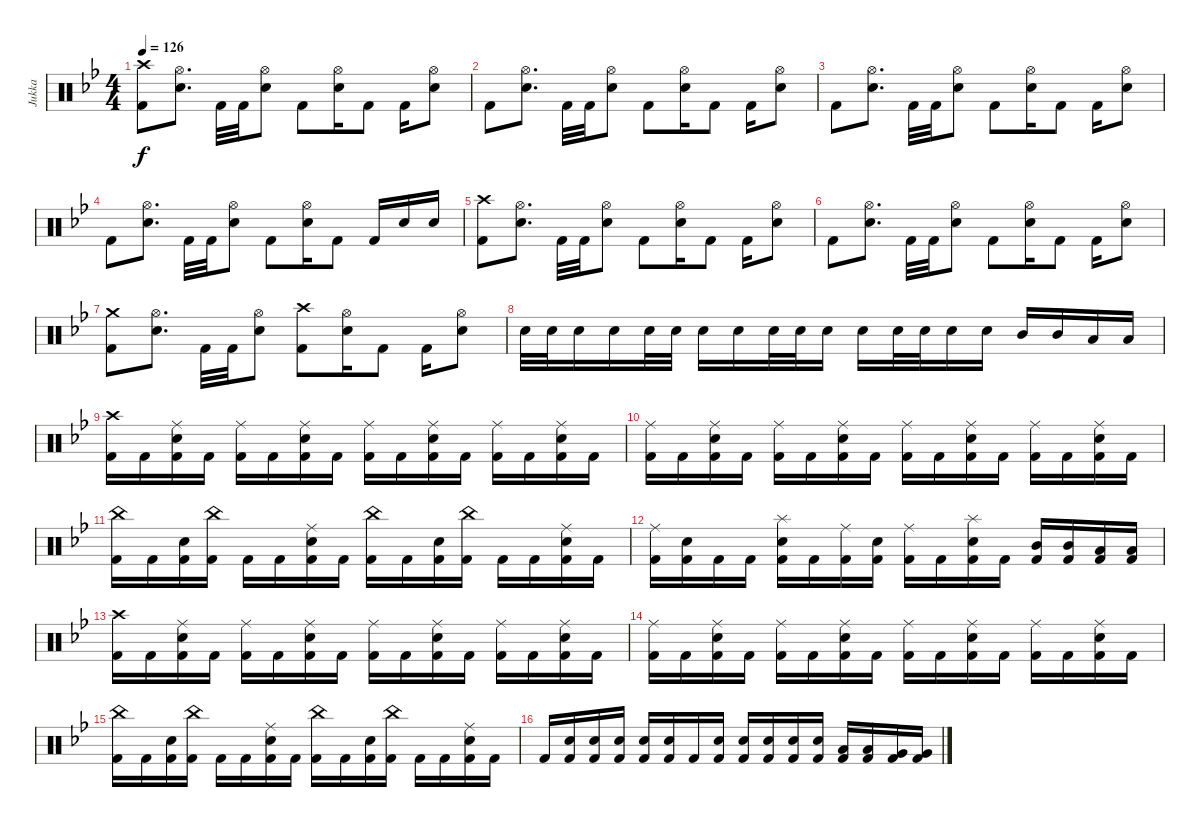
\track ("Jukka" "Jukka") {instrument percussion}
\staff {score}
\articulation defaults
\ts (4 4)
\tempo 126
\clef neutral
\ks gminor
("Crash high (hit)" "Kick (hit) 2").8{dy f} ("Hi-Hat (open)" "Electric Snare (hit)").8{d} "Kick (hit) 2".32 "Kick (hit) 2".32 ("Hi-Hat (open)" "Electric Snare (hit)").8 "Kick (hit) 2".8 ("Hi-Hat (open)" "Electric Snare (hit)").16 "Kick (hit) 2".8 "Kick (hit) 2".16 ("Hi-Hat (open)" "Electric Snare (hit)").8 |
"Kick (hit) 2".8 ("Hi-Hat (open)" "Electric Snare (hit)").8{d} "Kick (hit) 2".32 "Kick (hit) 2".32 ("Hi-Hat (open)" "Electric Snare (hit)").8 "Kick (hit) 2".8 ("Hi-Hat (open)" "Electric Snare (hit)").16 "Kick (hit) 2".8 "Kick (hit) 2".16 ("Hi-Hat (open)" "Electric Snare (hit)").8 |
"Kick (hit) 2".8 ("Hi-Hat (open)" "Electric Snare (hit)").8{d} "Kick (hit) 2".32 "Kick (hit) 2".32 ("Hi-Hat (open)" "Electric Snare (hit)").8 "Kick (hit) 2".8 ("Hi-Hat (open)" "Electric Snare (hit)").16 "Kick (hit) 2".8 "Kick (hit) 2".16 ("Hi-Hat (open)" "Electric Snare (hit)").8 |
"Kick (hit) 2".8 ("Hi-Hat (open)" "Electric Snare (hit)").8{d} "Kick (hit) 2".32 "Kick (hit) 2".32 ("Hi-Hat (open)" "Electric Snare (hit)").8 "Kick (hit) 2".8 ("Hi-Hat (open)" "Electric Snare (hit)").16 "Kick (hit) 2".8 "Kick (hit) 2".16 "Electric Snare (hit)".16 "Electric Snare (hit)".16 |
("Crash high (hit)" "Kick (hit) 2").8 ("Hi-Hat (open)" "Electric Snare (hit)").8{d} "Kick (hit) 2".32 "Kick (hit) 2".32 ("Hi-Hat (open)" "Electric Snare (hit)").8 "Kick (hit) 2".8 ("Hi-Hat (open)" "Electric Snare (hit)").16 "Kick (hit) 2".8 "Kick (hit) 2".16 ("Hi-Hat (open)" "Electric Snare (hit)").8 |
"Kick (hit) 2".8 ("Hi-Hat (open)" "Electric Snare (hit)").8{d} "Kick (hit) 2".32 "Kick (hit) 2".32 ("Hi-Hat (open)" "Electric Snare (hit)").8 "Kick (hit) 2".8 ("Hi-Hat (open)" "Electric Snare (hit)").16 "Kick (hit) 2".8 "Kick (hit) 2".16 ("Hi-Hat (open)" "Electric Snare (hit)").8 |
("Crash medium (hit)" "Kick (hit) 2").8 ("Hi-Hat (open)" "Electric Snare (hit)").8{d} "Kick (hit) 2".32 "Kick (hit) 2".32 ("Hi-Hat (open)" "Electric Snare (hit)").8 ("Crash high (hit)" "Kick (hit) 2").8 ("Hi-Hat (open)" "Electric Snare (hit)").16 "Kick (hit) 2".8 "Kick (hit) 2".16 ("Hi-Hat (open)" "Electric Snare (hit)").8 |
"Electric Snare (hit)".32 "Electric Snare (hit)".32 "Electric Snare (hit)".16 "Electric Snare (hit)".16 "Electric Snare (hit)".32 "Electric Snare (hit)".32 "Electric Snare (hit)".16 "Electric Snare (hit)".16 "Electric Snare (hit)".32 "Electric Snare (hit)".32 "Electric Snare (hit)".16 "Electric Snare (hit)".16 "Electric Snare (hit)".32 "Electric Snare (hit)".32 "Electric Snare (hit)".16 "Electric Snare (hit)".16 "Mid Tom (hit)".16 "Mid Tom (hit)".16 "Low Tom (hit)".16 "Low Tom (hit)".16 |
("Crash high (hit)" "Kick (hit) 2").16 "Kick (hit) 2".16 ("Ride (middle)" "Electric Snare (hit)" "Kick (hit) 2").16 "Kick (hit) 2".16 ("Ride (middle)" "Kick (hit) 2").16 "Kick (hit) 2".16 ("Ride (middle)" "Electric Snare (hit)" "Kick (hit) 2").16 "Kick (hit) 2".16 ("Ride (middle)" "Kick (hit) 2").16 "Kick (hit) 2".16 ("Ride (middle)" "Electric Snare (hit)" "Kick (hit) 2").16 "Kick (hit) 2".16 ("Ride (middle)" "Kick (hit) 2").16 "Kick (hit) 2".16 ("Ride (middle)" "Electric Snare (hit)" "Kick (hit) 2").16 "Kick (hit) 2".16 |
("Ride (middle)" "Kick (hit) 2").16 "Kick (hit) 2".16 ("Ride (middle)" "Electric Snare (hit)" "Kick (hit) 2").16 "Kick (hit) 2".16 ("Ride (middle)" "Kick (hit) 2").16 "Kick (hit) 2".16 ("Ride (middle)" "Electric Snare (hit)" "Kick (hit) 2").16 "Kick (hit) 2".16 ("Ride (middle)" "Kick (hit) 2").16 "Kick (hit) 2".16 ("Ride (middle)" "Electric Snare (hit)" "Kick (hit) 2").16 "Kick (hit) 2".16 ("Ride (middle)" "Kick (hit) 2").16 "Kick (hit) 2".16 ("Ride (middle)" "Electric Snare (hit)" "Kick (hit) 2").16 "Kick (hit) 2".16 |
("China (hit)" "Kick (hit) 2").16 "Kick (hit) 2".16 ("Electric Snare (hit)" "Kick (hit) 2").16 ("China (hit)" "Kick (hit) 2").16 "Kick (hit) 2".16 "Kick (hit) 2".16 ("Ride (middle)" "Electric Snare (hit)" "Kick (hit) 2").16 "Kick (hit) 2".16 ("China (hit)" "Kick (hit) 2").16 "Kick (hit) 2".16 ("Electric Snare (hit)" "Kick (hit) 2").16 ("China (hit)" "Kick (hit) 2").16 "Kick (hit) 2".16 "Kick (hit) 2".16 ("Ride (middle)" "Electric Snare (hit)" "Kick (hit) 2").16 "Kick (hit) 2".16 |
("Ride (middle)" "Kick (hit) 2").16 ("Electric Snare (hit)" "Kick (hit) 2").16 "Kick (hit) 2".16 "Kick (hit) 2".16 ("Splash (hit)" "Electric Snare (hit)" "Kick (hit) 2").16 "Kick (hit) 2".16 ("Ride (middle)" "Kick (hit) 2").16 ("Electric Snare (hit)" "Kick (hit) 2").16 ("Ride (middle)" "Kick (hit) 2").16 "Kick (hit) 2".16 ("Splash (hit)" "Electric Snare (hit)" "Kick (hit) 2").16 "Kick (hit) 2".16 ("Mid Tom (hit)" "Kick (hit) 2").16 ("Mid Tom (hit)" "Kick (hit) 2").16 ("Low Tom (hit)" "Kick (hit) 2").16 ("Low Tom (hit)" "Kick (hit) 2").16 |
("Crash high (hit)" "Kick (hit) 2").16 "Kick (hit) 2".16 ("Ride (middle)" "Electric Snare (hit)" "Kick (hit) 2").16 "Kick (hit) 2".16 ("Ride (middle)" "Kick (hit) 2").16 "Kick (hit) 2".16 ("Ride (middle)" "Electric Snare (hit)" "Kick (hit) 2").16 "Kick (hit) 2".16 ("Ride (middle)" "Kick (hit) 2").16 "Kick (hit) 2".16 ("Ride (middle)" "Electric Snare (hit)" "Kick (hit) 2").16 "Kick (hit) 2".16 ("Ride (middle)" "Kick (hit) 2").16 "Kick (hit) 2".16 ("Ride (middle)" "Electric Snare (hit)" "Kick (hit) 2").16 "Kick (hit) 2".16 |
("Ride (middle)" "Kick (hit) 2").16 "Kick (hit) 2".16 ("Ride (middle)" "Electric Snare (hit)" "Kick (hit) 2").16 "Kick (hit) 2".16 ("Ride (middle)" "Kick (hit) 2").16 "Kick (hit) 2".16 ("Ride (middle)" "Electric Snare (hit)" "Kick (hit) 2").16 "Kick (hit) 2".16 ("Ride (middle)" "Kick (hit) 2").16 "Kick (hit) 2".16 ("Ride (middle)" "Electric Snare (hit)" "Kick (hit) 2").16 "Kick (hit) 2".16 ("Ride (middle)" "Kick (hit) 2").16 "Kick (hit) 2".16 ("Ride (middle)" "Electric Snare (hit)" "Kick (hit) 2").16 "Kick (hit) 2".16 |
("China (hit)" "Kick (hit) 2").16 "Kick (hit) 2".16 ("Electric Snare (hit)" "Kick (hit) 2").16 ("China (hit)" "Kick (hit) 2").16 "Kick (hit) 2".16 "Kick (hit) 2".16 ("Ride (middle)" "Electric Snare (hit)" "Kick (hit) 2").16 "Kick (hit) 2".16 ("China (hit)" "Kick (hit) 2").16 "Kick (hit) 2".16 ("Electric Snare (hit)" "Kick (hit) 2").16 ("China (hit)" "Kick (hit) 2").16 "Kick (hit) 2".16 "Kick (hit) 2".16 ("Ride (middle)" "Electric Snare (hit)" "Kick (hit) 2").16 "Kick (hit) 2".16 |
"Kick (hit) 2".16 ("Electric Snare (hit)" "Kick (hit) 2").16 ("Electric Snare (hit)" "Kick (hit) 2").16 ("Electric Snare (hit)" "Kick (hit) 2").16 ("Electric Snare (hit)" "Kick (hit) 2").16 ("Electric Snare (hit)" "Kick (hit) 2").16 "Kick (hit) 2".16 ("Electric Snare (hit)" "Kick (hit) 2").16 ("Electric Snare (hit)" "Kick (hit) 2").16 ("Electric Snare (hit)" "Kick (hit) 2").16 ("Electric Snare (hit)" "Kick (hit) 2").16 ("Electric Snare (hit)" "Kick (hit) 2").16 ("Low Tom (hit)" "Kick (hit) 2").16 ("Low Tom (hit)" "Kick (hit) 2").16 ("Very Low Tom (hit)" "Kick (hit) 2").16 ("Very Low Tom (hit)" "Kick (hit) 2").16
